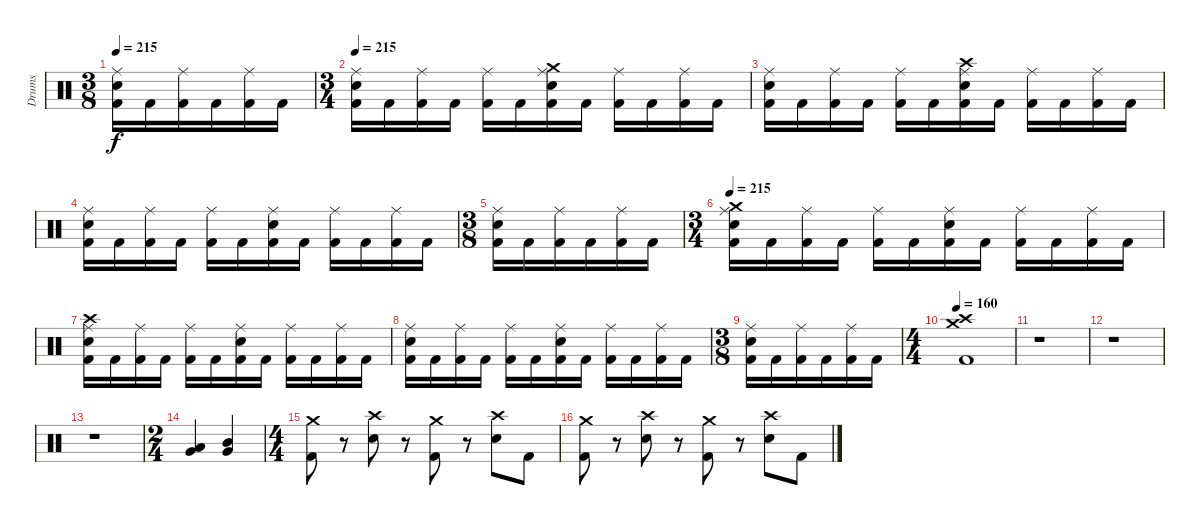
\track ("Drums" "Drums") {instrument percussion}
\staff {score}
\articulation defaults
\ts (3 8)
\tempo 215
\clef neutral
\ks c
("Kick (hit) 2" "Electric Snare (hit)" "Ride (middle)").16{dy f} "Kick (hit) 2".16 ("Kick (hit) 2" "Ride (middle)").16 "Kick (hit) 2".16 ("Kick (hit) 2" "Ride (middle)").16 "Kick (hit) 2".16 |
\ts (3 4)
\tempo 215
("Kick (hit) 2" "Electric Snare (hit)" "Ride (middle)").16 "Kick (hit) 2".16 ("Kick (hit) 2" "Ride (middle)").16 "Kick (hit) 2".16 ("Kick (hit) 2" "Ride (middle)").16 "Kick (hit) 2".16 ("Kick (hit) 2" "Electric Snare (hit)" "Ride (middle)" "Crash medium (hit)").16 "Kick (hit) 2".16 ("Kick (hit) 2" "Ride (middle)").16 "Kick (hit) 2".16 ("Kick (hit) 2" "Ride (middle)").16 "Kick (hit) 2".16 |
("Kick (hit) 2" "Electric Snare (hit)" "Ride (middle)").16 "Kick (hit) 2".16 ("Kick (hit) 2" "Ride (middle)").16 "Kick (hit) 2".16 ("Kick (hit) 2" "Ride (middle)").16 "Kick (hit) 2".16 ("Kick (hit) 2" "Electric Snare (hit)" "Ride (middle)" "Crash high (hit)").16 "Kick (hit) 2".16 ("Kick (hit) 2" "Ride (middle)").16 "Kick (hit) 2".16 ("Kick (hit) 2" "Ride (middle)").16 "Kick (hit) 2".16 |
("Kick (hit) 2" "Electric Snare (hit)" "Ride (middle)").16 "Kick (hit) 2".16 ("Kick (hit) 2" "Ride (middle)").16 "Kick (hit) 2".16 ("Kick (hit) 2" "Ride (middle)").16 "Kick (hit) 2".16 ("Kick (hit) 2" "Electric Snare (hit)" "Ride (middle)").16 "Kick (hit) 2".16 ("Kick (hit) 2" "Ride (middle)").16 "Kick (hit) 2".16 ("Kick (hit) 2" "Ride (middle)").16 "Kick (hit) 2".16 |
\ts (3 8)
("Kick (hit) 2" "Electric Snare (hit)" "Ride (middle)").16 "Kick (hit) 2".16 ("Kick (hit) 2" "Ride (middle)").16 "Kick (hit) 2".16 ("Kick (hit) 2" "Ride (middle)").16 "Kick (hit) 2".16 |
\ts (3 4)
\tempo 215
("Kick (hit) 2" "Electric Snare (hit)" "Ride (middle)" "Crash medium (hit)").16 "Kick (hit) 2".16 ("Kick (hit) 2" "Ride (middle)").16 "Kick (hit) 2".16 ("Kick (hit) 2" "Ride (middle)").16 "Kick (hit) 2".16 ("Kick (hit) 2" "Electric Snare (hit)" "Ride (middle)").16 "Kick (hit) 2".16 ("Kick (hit) 2" "Ride (middle)").16 "Kick (hit) 2".16 ("Kick (hit) 2" "Ride (middle)").16 "Kick (hit) 2".16 |
("Kick (hit) 2" "Electric Snare (hit)" "Ride (middle)" "Crash high (hit)").16 "Kick (hit) 2".16 ("Kick (hit) 2" "Ride (middle)").16 "Kick (hit) 2".16 ("Kick (hit) 2" "Ride (middle)").16 "Kick (hit) 2".16 ("Kick (hit) 2" "Electric Snare (hit)" "Ride (middle)").16 "Kick (hit) 2".16 ("Kick (hit) 2" "Ride (middle)").16 "Kick (hit) 2".16 ("Kick (hit) 2" "Ride (middle)").16 "Kick (hit) 2".16 |
("Kick (hit) 2" "Electric Snare (hit)" "Ride (middle)").16 "Kick (hit) 2".16 ("Kick (hit) 2" "Ride (middle)").16 "Kick (hit) 2".16 ("Kick (hit) 2" "Ride (middle)").16 "Kick (hit) 2".16 ("Kick (hit) 2" "Electric Snare (hit)" "Ride (middle)").16 "Kick (hit) 2".16 ("Kick (hit) 2" "Ride (middle)").16 "Kick (hit) 2".16 ("Kick (hit) 2" "Ride (middle)").16 "Kick (hit) 2".16 |
\ts (3 8)
("Kick (hit) 2" "Electric Snare (hit)" "Ride (middle)").16 "Kick (hit) 2".16 ("Kick (hit) 2" "Ride (middle)").16 "Kick (hit) 2".16 ("Kick (hit) 2" "Ride (middle)").16 "Kick (hit) 2".16 |
\ts (4 4)
\tempo 160
("Kick (hit) 2" "Crash high (hit)" "Crash medium (hit)").1 |
r.1 |
r.1 |
r.1 |
\ts (2 4)
("Very Low Tom (hit)" "Low Tom (hit)").4 ("Very Low Tom (hit)" "Mid Tom (hit)").4 |
\ts (4 4)
("Kick (hit) 2" "Crash medium (hit)").8 r.8 ("Electric Snare (hit)" "Crash high (hit)").8 r.8 ("Kick (hit) 2" "Crash medium (hit)").8 r.8 ("Electric Snare (hit)" "Crash high (hit)").8 "Kick (hit) 2".8 |
("Kick (hit) 2" "Crash medium (hit)").8 r.8 ("Electric Snare (hit)" "Crash high (hit)").8 r.8 ("Kick (hit) 2" "Crash medium (hit)").8 r.8 ("Electric Snare (hit)" "Crash high (hit)").8 "Kick (hit) 2".8
